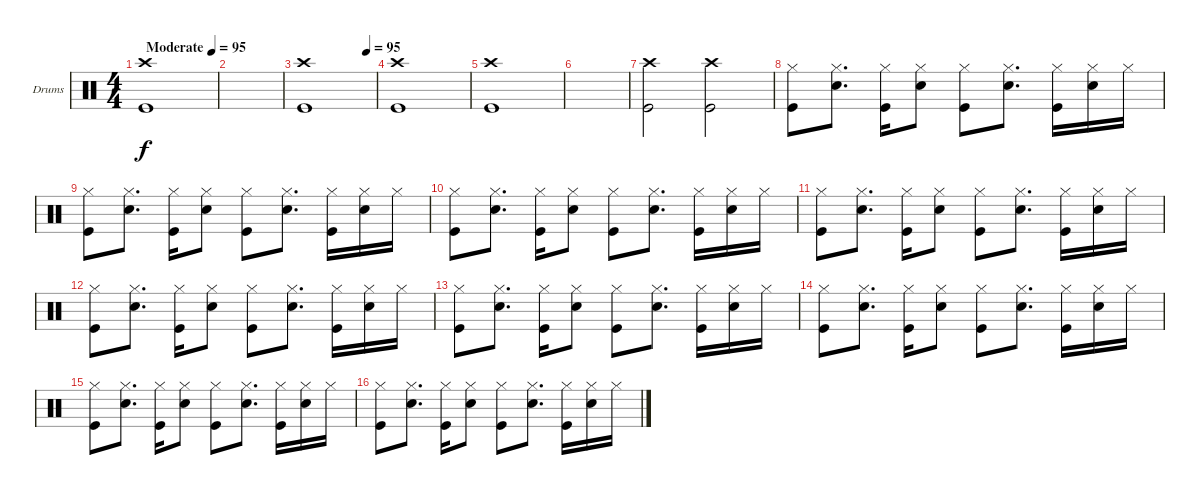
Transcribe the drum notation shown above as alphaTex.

\bracketExtendMode groupsimilarinstruments
\firstSystemTrackNameOrientation horizontal
\otherSystemsTrackNameOrientation horizontal
\track ("Drumkit" "Drums") {instrument percussion}
\staff {score}
\articulation defaults
\ts (4 4)
\beaming (8 2 2 2 2)
\tempo (95 "Moderate")
\clef neutral
\scale
0.472222
\ks c
("Kick (hit)" "Crash high (hit)").1{dy f} |
\scale
0.263889 |
\tempo (95 0.875)
\scale
0.263889 ("Kick (hit)" "Crash high (hit)").1 |
\scale
0.333333 ("Kick (hit)" "Crash high (hit)").1 |
\scale
0.333333 ("Kick (hit)" "Crash high (hit)").1 |
\scale
0.333333 |
\scale
0.333333 ("Kick (hit)" "Crash high (hit)").2 ("Kick (hit)" "Crash high (hit)").2 |
\scale
0.333333 ("Kick (hit)" "Hi-Hat (closed)").8 ("Snare (hit) 2" "Hi-Hat (closed)").8{d} ("Kick (hit)" "Hi-Hat (closed)").16 ("Snare (hit) 2" "Hi-Hat (closed)").8 ("Kick (hit)" "Hi-Hat (closed)").8 ("Snare (hit) 2" "Hi-Hat (closed)").8{d} ("Kick (hit)" "Hi-Hat (closed)").16 ("Snare (hit) 2" "Hi-Hat (closed)").16 "Hi-Hat (closed)".16 |
\scale
0.333333 ("Kick (hit)" "Hi-Hat (closed)").8 ("Snare (hit) 2" "Hi-Hat (closed)").8{d} ("Kick (hit)" "Hi-Hat (closed)").16 ("Snare (hit) 2" "Hi-Hat (closed)").8 ("Kick (hit)" "Hi-Hat (closed)").8 ("Snare (hit) 2" "Hi-Hat (closed)").8{d} ("Kick (hit)" "Hi-Hat (closed)").16 ("Snare (hit) 2" "Hi-Hat (closed)").16 "Hi-Hat (closed)".16 |
\scale
0.333333 ("Kick (hit)" "Hi-Hat (closed)").8 ("Snare (hit) 2" "Hi-Hat (closed)").8{d} ("Kick (hit)" "Hi-Hat (closed)").16 ("Snare (hit) 2" "Hi-Hat (closed)").8 ("Kick (hit)" "Hi-Hat (closed)").8 ("Snare (hit) 2" "Hi-Hat (closed)").8{d} ("Kick (hit)" "Hi-Hat (closed)").16 ("Snare (hit) 2" "Hi-Hat (closed)").16 "Hi-Hat (closed)".16 |
\scale
0.333333 ("Kick (hit)" "Hi-Hat (closed)").8 ("Snare (hit) 2" "Hi-Hat (closed)").8{d} ("Kick (hit)" "Hi-Hat (closed)").16 ("Snare (hit) 2" "Hi-Hat (closed)").8 ("Kick (hit)" "Hi-Hat (closed)").8 ("Snare (hit) 2" "Hi-Hat (closed)").8{d} ("Kick (hit)" "Hi-Hat (closed)").16 ("Snare (hit) 2" "Hi-Hat (closed)").16 "Hi-Hat (closed)".16 |
\scale
0.333333 ("Kick (hit)" "Hi-Hat (closed)").8 ("Snare (hit) 2" "Hi-Hat (closed)").8{d} ("Kick (hit)" "Hi-Hat (closed)").16 ("Snare (hit) 2" "Hi-Hat (closed)").8 ("Kick (hit)" "Hi-Hat (closed)").8 ("Snare (hit) 2" "Hi-Hat (closed)").8{d} ("Kick (hit)" "Hi-Hat (closed)").16 ("Snare (hit) 2" "Hi-Hat (closed)").16 "Hi-Hat (closed)".16 |
\scale
0.333333 ("Kick (hit)" "Hi-Hat (closed)").8 ("Snare (hit) 2" "Hi-Hat (closed)").8{d} ("Kick (hit)" "Hi-Hat (closed)").16 ("Snare (hit) 2" "Hi-Hat (closed)").8 ("Kick (hit)" "Hi-Hat (closed)").8 ("Snare (hit) 2" "Hi-Hat (closed)").8{d} ("Kick (hit)" "Hi-Hat (closed)").16 ("Snare (hit) 2" "Hi-Hat (closed)").16 "Hi-Hat (closed)".16 |
\scale
0.333333 ("Kick (hit)" "Hi-Hat (closed)").8 ("Snare (hit) 2" "Hi-Hat (closed)").8{d} ("Kick (hit)" "Hi-Hat (closed)").16 ("Snare (hit) 2" "Hi-Hat (closed)").8 ("Kick (hit)" "Hi-Hat (closed)").8 ("Snare (hit) 2" "Hi-Hat (closed)").8{d} ("Kick (hit)" "Hi-Hat (closed)").16 ("Snare (hit) 2" "Hi-Hat (closed)").16 "Hi-Hat (closed)".16 |
\scale
0.333333 ("Kick (hit)" "Hi-Hat (closed)").8 ("Snare (hit) 2" "Hi-Hat (closed)").8{d} ("Kick (hit)" "Hi-Hat (closed)").16 ("Snare (hit) 2" "Hi-Hat (closed)").8 ("Kick (hit)" "Hi-Hat (closed)").8 ("Snare (hit) 2" "Hi-Hat (closed)").8{d} ("Kick (hit)" "Hi-Hat (closed)").16 ("Snare (hit) 2" "Hi-Hat (closed)").16 "Hi-Hat (closed)".16 |
\scale
0.333333 ("Kick (hit)" "Hi-Hat (closed)").8 ("Snare (hit) 2" "Hi-Hat (closed)").8{d} ("Kick (hit)" "Hi-Hat (closed)").16 ("Snare (hit) 2" "Hi-Hat (closed)").8 ("Kick (hit)" "Hi-Hat (closed)").8 ("Snare (hit) 2" "Hi-Hat (closed)").8{d} ("Kick (hit)" "Hi-Hat (closed)").16 ("Snare (hit) 2" "Hi-Hat (closed)").16 "Hi-Hat (closed)".16
